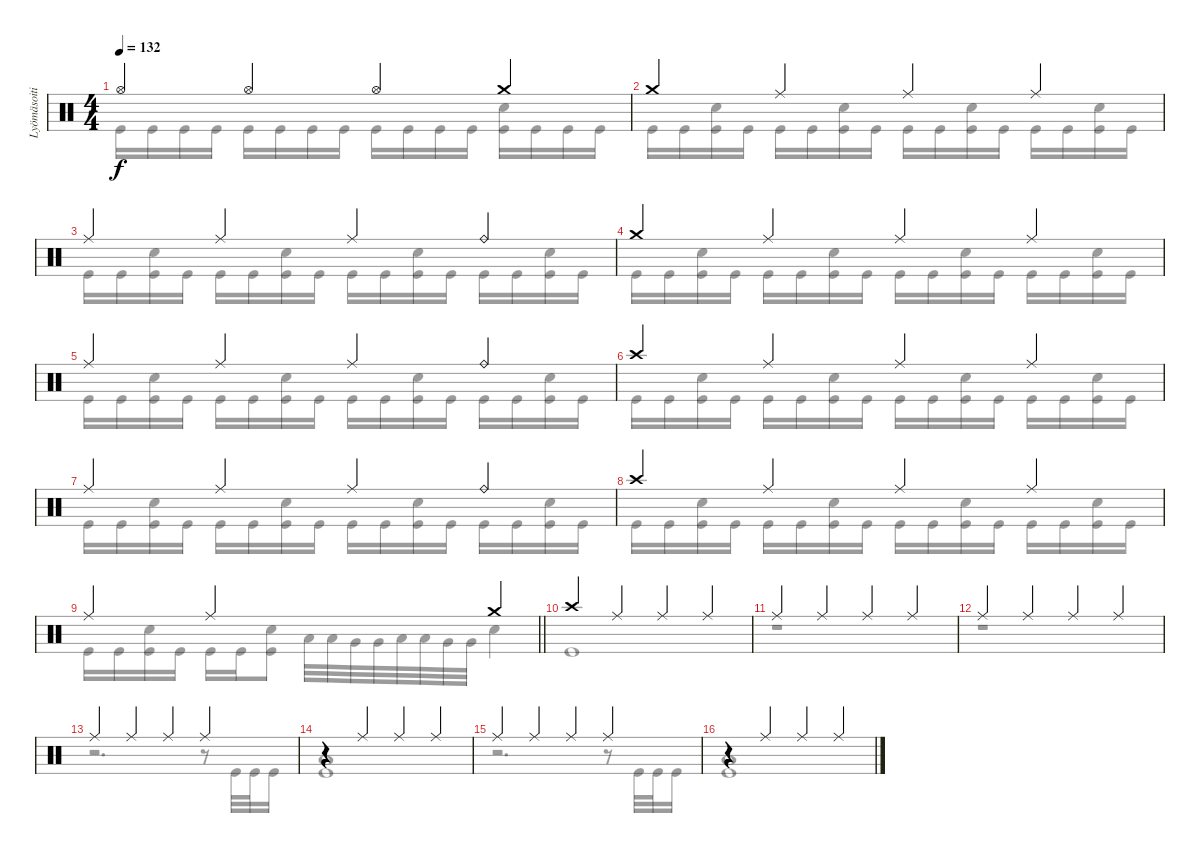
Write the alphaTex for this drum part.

\track ("Lyömäsoitin" "Lyömäsoiti") {instrument percussion}
\staff {score}
\articulation defaults
\voice
\ts (4 4)
\tempo 132
\clef neutral
\ks c "Hi-Hat (open)".4{dy f} "Hi-Hat (open)".4 "Hi-Hat (open)".4 "Crash medium (hit)".4
|
"Crash medium (hit)".4 "Ride (middle)".4 "Ride (middle)".4 "Ride (middle)".4 |
"Ride (middle)".4 "Ride (middle)".4 "Ride (middle)".4 "Ride (bell)".4 |
"Crash medium (hit)".4 "Ride (middle)".4 "Ride (middle)".4 "Ride (middle)".4 |
"Ride (middle)".4 "Ride (middle)".4 "Ride (middle)".4 "Ride (bell)".4 |
"Crash high (hit)".4 "Ride (middle)".4 "Ride (middle)".4 "Ride (middle)".4 |
"Ride (middle)".4 "Ride (middle)".4 "Ride (middle)".4 "Ride (bell)".4 |
"Crash high (hit)".4 "Ride (middle)".4 "Ride (middle)".4 "Ride (middle)".4 |
\barLineRight lightlight "Ride (middle)".4 "Ride (middle)".2 "Crash medium (hit)".4
|
\section ("" "")
"Crash high (hit)".4 "Ride (middle)".4 "Ride (middle)".4 "Ride (middle)".4 |
"Ride (middle)".4 "Ride (middle)".4 "Ride (middle)".4 "Ride (middle)".4 |
"Ride (middle)".4 "Ride (middle)".4 "Ride (middle)".4 "Ride (middle)".4 |
"Ride (middle)".4 "Ride (middle)".4 "Ride (middle)".4 "Ride (middle)".4 |
r.4 "Ride (middle)".4 "Ride (middle)".4 "Ride (middle)".4 |
"Ride (middle)".4 "Ride (middle)".4 "Ride (middle)".4 "Ride (middle)".4 |
r.4 "Ride (middle)".4 "Ride (middle)".4 "Ride (middle)".4
\voice
\clef neutral
\ottava regular
\simile none
\ks c "Kick (hit)".16{dy f} "Kick (hit)".16 "Kick (hit)".16 "Kick (hit)".16 "Kick (hit)".16 "Kick (hit)".16 "Kick (hit)".16 "Kick (hit)".16 "Kick (hit)".16 "Kick (hit)".16 "Kick (hit)".16 "Kick (hit)".16
("Electric Snare (hit)" "Kick (hit)").16 "Kick (hit)".16 "Kick (hit)".16 "Kick (hit)".16 |
"Kick (hit)".16 "Kick (hit)".16 ("Electric Snare (hit)" "Kick (hit)").16 "Kick (hit)".16 "Kick (hit)".16 "Kick (hit)".16 ("Electric Snare (hit)" "Kick (hit)").16 "Kick (hit)".16 "Kick (hit)".16 "Kick (hit)".16 ("Electric Snare (hit)" "Kick (hit)").16 "Kick (hit)".16 "Kick (hit)".16 "Kick (hit)".16 ("Electric Snare (hit)" "Kick (hit)").16 "Kick (hit)".16 |
"Kick (hit)".16 "Kick (hit)".16 ("Electric Snare (hit)" "Kick (hit)").16 "Kick (hit)".16 "Kick (hit)".16 "Kick (hit)".16 ("Electric Snare (hit)" "Kick (hit)").16 "Kick (hit)".16 "Kick (hit)".16 "Kick (hit)".16 ("Electric Snare (hit)" "Kick (hit)").16 "Kick (hit)".16 "Kick (hit)".16 "Kick (hit)".16 ("Electric Snare (hit)" "Kick (hit)").16 "Kick (hit)".16 |
"Kick (hit)".16 "Kick (hit)".16 ("Electric Snare (hit)" "Kick (hit)").16 "Kick (hit)".16 "Kick (hit)".16 "Kick (hit)".16 ("Electric Snare (hit)" "Kick (hit)").16 "Kick (hit)".16 "Kick (hit)".16 "Kick (hit)".16 ("Electric Snare (hit)" "Kick (hit)").16 "Kick (hit)".16 "Kick (hit)".16 "Kick (hit)".16 ("Electric Snare (hit)" "Kick (hit)").16 "Kick (hit)".16 |
"Kick (hit)".16 "Kick (hit)".16 ("Electric Snare (hit)" "Kick (hit)").16 "Kick (hit)".16 "Kick (hit)".16 "Kick (hit)".16 ("Electric Snare (hit)" "Kick (hit)").16 "Kick (hit)".16 "Kick (hit)".16 "Kick (hit)".16 ("Electric Snare (hit)" "Kick (hit)").16 "Kick (hit)".16 "Kick (hit)".16 "Kick (hit)".16 ("Electric Snare (hit)" "Kick (hit)").16 "Kick (hit)".16 |
"Kick (hit)".16 "Kick (hit)".16 ("Electric Snare (hit)" "Kick (hit)").16 "Kick (hit)".16 "Kick (hit)".16 "Kick (hit)".16 ("Electric Snare (hit)" "Kick (hit)").16 "Kick (hit)".16 "Kick (hit)".16 "Kick (hit)".16 ("Electric Snare (hit)" "Kick (hit)").16 "Kick (hit)".16 "Kick (hit)".16 "Kick (hit)".16 ("Electric Snare (hit)" "Kick (hit)").16 "Kick (hit)".16 |
"Kick (hit)".16 "Kick (hit)".16 ("Electric Snare (hit)" "Kick (hit)").16 "Kick (hit)".16 "Kick (hit)".16 "Kick (hit)".16 ("Electric Snare (hit)" "Kick (hit)").16 "Kick (hit)".16 "Kick (hit)".16 "Kick (hit)".16 ("Electric Snare (hit)" "Kick (hit)").16 "Kick (hit)".16 "Kick (hit)".16 "Kick (hit)".16 ("Electric Snare (hit)" "Kick (hit)").16 "Kick (hit)".16 |
"Kick (hit)".16 "Kick (hit)".16 ("Electric Snare (hit)" "Kick (hit)").16 "Kick (hit)".16 "Kick (hit)".16 "Kick (hit)".16 ("Electric Snare (hit)" "Kick (hit)").16 "Kick (hit)".16 "Kick (hit)".16 "Kick (hit)".16 ("Electric Snare (hit)" "Kick (hit)").16 "Kick (hit)".16 "Kick (hit)".16 "Kick (hit)".16 ("Electric Snare (hit)" "Kick (hit)").16 "Kick (hit)".16 |
\barLineRight lightlight "Kick (hit)".16 "Kick (hit)".16
("Electric Snare (hit)" "Kick (hit)").16 "Kick (hit)".16 "Kick (hit)".16 "Kick (hit)".16 ("Electric Snare (hit)" "Kick (hit)").8 "Low Tom (hit)".32 "Low Tom (hit)".32 "Very Low Tom (hit)".32 "Very Low Tom (hit)".32 "Low Tom (hit)".32 "Low Tom (hit)".32 "Very Low Tom (hit)".32 "Very Low Tom (hit)".32 "Electric Snare (hit)".4 |
"Kick (hit)".1 |
r.1 |
r.1 |
r.2{d} r.8 "Kick (hit)".32 "Kick (hit)".32 "Kick (hit)".16 |
("Low Floor Tom (hit)" "Kick (hit)").1 |
r.2{d} r.8 "Kick (hit)".32 "Kick (hit)".32 "Kick (hit)".16 |
("Low Floor Tom (hit)" "Kick (hit)").1
